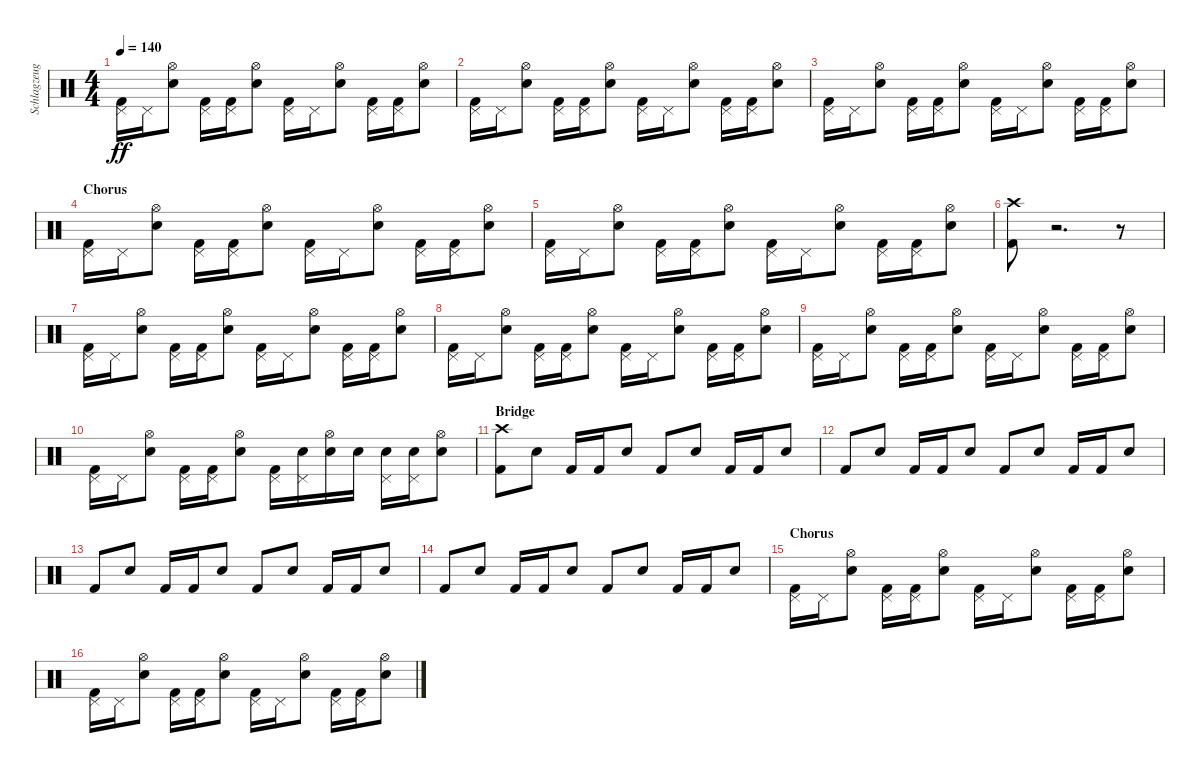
\track ("Schlagzeug - Bela B." "Schlagzeug") {instrument percussion}
\staff {score}
\articulation defaults
\ts (4 4)
\tempo 140
\clef neutral
\ks c
("Kick (hit) 2" "Pedal Hi-Hat (hit)").16{dy ff} "Pedal Hi-Hat (hit)".16 ("Electric Snare (hit)" "Hi-Hat (open)").8 ("Kick (hit) 2" "Pedal Hi-Hat (hit)").16 ("Kick (hit) 2" "Pedal Hi-Hat (hit)").16 ("Electric Snare (hit)" "Hi-Hat (open)").8 ("Kick (hit) 2" "Pedal Hi-Hat (hit)").16 "Pedal Hi-Hat (hit)".16 ("Electric Snare (hit)" "Hi-Hat (open)").8 ("Kick (hit) 2" "Pedal Hi-Hat (hit)").16 ("Kick (hit) 2" "Pedal Hi-Hat (hit)").16 ("Electric Snare (hit)" "Hi-Hat (open)").8 |
("Kick (hit) 2" "Pedal Hi-Hat (hit)").16 "Pedal Hi-Hat (hit)".16 ("Electric Snare (hit)" "Hi-Hat (open)").8 ("Kick (hit) 2" "Pedal Hi-Hat (hit)").16 ("Kick (hit) 2" "Pedal Hi-Hat (hit)").16 ("Electric Snare (hit)" "Hi-Hat (open)").8 ("Kick (hit) 2" "Pedal Hi-Hat (hit)").16 "Pedal Hi-Hat (hit)".16 ("Electric Snare (hit)" "Hi-Hat (open)").8 ("Kick (hit) 2" "Pedal Hi-Hat (hit)").16 ("Kick (hit) 2" "Pedal Hi-Hat (hit)").16 ("Electric Snare (hit)" "Hi-Hat (open)").8 |
("Kick (hit) 2" "Pedal Hi-Hat (hit)").16 "Pedal Hi-Hat (hit)".16 ("Electric Snare (hit)" "Hi-Hat (open)").8 ("Kick (hit) 2" "Pedal Hi-Hat (hit)").16 ("Kick (hit) 2" "Pedal Hi-Hat (hit)").16 ("Electric Snare (hit)" "Hi-Hat (open)").8 ("Kick (hit) 2" "Pedal Hi-Hat (hit)").16 "Pedal Hi-Hat (hit)".16 ("Electric Snare (hit)" "Hi-Hat (open)").8 ("Kick (hit) 2" "Pedal Hi-Hat (hit)").16 ("Kick (hit) 2" "Pedal Hi-Hat (hit)").16 ("Electric Snare (hit)" "Hi-Hat (open)").8 |
\section ("" "Chorus")
("Kick (hit) 2" "Pedal Hi-Hat (hit)").16 "Pedal Hi-Hat (hit)".16 ("Electric Snare (hit)" "Hi-Hat (open)").8 ("Kick (hit) 2" "Pedal Hi-Hat (hit)").16 ("Kick (hit) 2" "Pedal Hi-Hat (hit)").16 ("Electric Snare (hit)" "Hi-Hat (open)").8 ("Kick (hit) 2" "Pedal Hi-Hat (hit)").16 "Pedal Hi-Hat (hit)".16 ("Electric Snare (hit)" "Hi-Hat (open)").8 ("Kick (hit) 2" "Pedal Hi-Hat (hit)").16 ("Kick (hit) 2" "Pedal Hi-Hat (hit)").16 ("Electric Snare (hit)" "Hi-Hat (open)").8 |
("Kick (hit) 2" "Pedal Hi-Hat (hit)").16 "Pedal Hi-Hat (hit)".16 ("Electric Snare (hit)" "Hi-Hat (open)").8 ("Kick (hit) 2" "Pedal Hi-Hat (hit)").16 ("Kick (hit) 2" "Pedal Hi-Hat (hit)").16 ("Electric Snare (hit)" "Hi-Hat (open)").8 ("Kick (hit) 2" "Pedal Hi-Hat (hit)").16 "Pedal Hi-Hat (hit)".16 ("Electric Snare (hit)" "Hi-Hat (open)").8 ("Kick (hit) 2" "Pedal Hi-Hat (hit)").16 ("Kick (hit) 2" "Pedal Hi-Hat (hit)").16 ("Electric Snare (hit)" "Hi-Hat (open)").8 |
("Crash high (hit)" "Kick (hit) 2").8 r.2{d} r.8 |
("Kick (hit) 2" "Pedal Hi-Hat (hit)").16 "Pedal Hi-Hat (hit)".16 ("Electric Snare (hit)" "Hi-Hat (open)").8 ("Kick (hit) 2" "Pedal Hi-Hat (hit)").16 ("Kick (hit) 2" "Pedal Hi-Hat (hit)").16 ("Electric Snare (hit)" "Hi-Hat (open)").8 ("Kick (hit) 2" "Pedal Hi-Hat (hit)").16 "Pedal Hi-Hat (hit)".16 ("Electric Snare (hit)" "Hi-Hat (open)").8 ("Kick (hit) 2" "Pedal Hi-Hat (hit)").16 ("Kick (hit) 2" "Pedal Hi-Hat (hit)").16 ("Electric Snare (hit)" "Hi-Hat (open)").8 |
("Kick (hit) 2" "Pedal Hi-Hat (hit)").16 "Pedal Hi-Hat (hit)".16 ("Electric Snare (hit)" "Hi-Hat (open)").8 ("Kick (hit) 2" "Pedal Hi-Hat (hit)").16 ("Kick (hit) 2" "Pedal Hi-Hat (hit)").16 ("Electric Snare (hit)" "Hi-Hat (open)").8 ("Kick (hit) 2" "Pedal Hi-Hat (hit)").16 "Pedal Hi-Hat (hit)".16 ("Electric Snare (hit)" "Hi-Hat (open)").8 ("Kick (hit) 2" "Pedal Hi-Hat (hit)").16 ("Kick (hit) 2" "Pedal Hi-Hat (hit)").16 ("Electric Snare (hit)" "Hi-Hat (open)").8 |
("Kick (hit) 2" "Pedal Hi-Hat (hit)").16 "Pedal Hi-Hat (hit)".16 ("Electric Snare (hit)" "Hi-Hat (open)").8 ("Kick (hit) 2" "Pedal Hi-Hat (hit)").16 ("Kick (hit) 2" "Pedal Hi-Hat (hit)").16 ("Electric Snare (hit)" "Hi-Hat (open)").8 ("Kick (hit) 2" "Pedal Hi-Hat (hit)").16 "Pedal Hi-Hat (hit)".16 ("Electric Snare (hit)" "Hi-Hat (open)").8 ("Kick (hit) 2" "Pedal Hi-Hat (hit)").16 ("Kick (hit) 2" "Pedal Hi-Hat (hit)").16 ("Electric Snare (hit)" "Hi-Hat (open)").8 |
("Kick (hit) 2" "Pedal Hi-Hat (hit)").16 "Pedal Hi-Hat (hit)".16 ("Electric Snare (hit)" "Hi-Hat (open)").8 ("Kick (hit) 2" "Pedal Hi-Hat (hit)").16 ("Kick (hit) 2" "Pedal Hi-Hat (hit)").16 ("Electric Snare (hit)" "Hi-Hat (open)").8 ("Pedal Hi-Hat (hit)" "Kick (hit) 2").16 ("Pedal Hi-Hat (hit)" "Electric Snare (hit)").16 ("Electric Snare (hit)" "Hi-Hat (open)").16 "Electric Snare (hit)".16 ("Pedal Hi-Hat (hit)" "Electric Snare (hit)").16 ("Pedal Hi-Hat (hit)" "Electric Snare (hit)").16 ("Electric Snare (hit)" "Hi-Hat (open)").8 |
\section ("" "Bridge")
("Kick (hit) 2" "Crash high (hit)").8 "Electric Snare (hit)".8 "Kick (hit) 2".16 "Kick (hit) 2".16 "Electric Snare (hit)".8 "Kick (hit) 2".8 "Electric Snare (hit)".8 "Kick (hit) 2".16 "Kick (hit) 2".16 "Electric Snare (hit)".8 |
"Kick (hit) 2".8 "Electric Snare (hit)".8 "Kick (hit) 2".16 "Kick (hit) 2".16 "Electric Snare (hit)".8 "Kick (hit) 2".8 "Electric Snare (hit)".8 "Kick (hit) 2".16 "Kick (hit) 2".16 "Electric Snare (hit)".8 |
"Kick (hit) 2".8 "Electric Snare (hit)".8 "Kick (hit) 2".16 "Kick (hit) 2".16 "Electric Snare (hit)".8 "Kick (hit) 2".8 "Electric Snare (hit)".8 "Kick (hit) 2".16 "Kick (hit) 2".16 "Electric Snare (hit)".8 |
"Kick (hit) 2".8 "Electric Snare (hit)".8 "Kick (hit) 2".16 "Kick (hit) 2".16 "Electric Snare (hit)".8 "Kick (hit) 2".8 "Electric Snare (hit)".8 "Kick (hit) 2".16 "Kick (hit) 2".16 "Electric Snare (hit)".8 |
\section ("" "Chorus")
("Kick (hit) 2" "Pedal Hi-Hat (hit)").16 "Pedal Hi-Hat (hit)".16 ("Hi-Hat (open)" "Electric Snare (hit)").8 ("Kick (hit) 2" "Pedal Hi-Hat (hit)").16 ("Pedal Hi-Hat (hit)" "Kick (hit) 2").16 ("Hi-Hat (open)" "Electric Snare (hit)").8 ("Pedal Hi-Hat (hit)" "Kick (hit) 2").16 "Pedal Hi-Hat (hit)".16 ("Electric Snare (hit)" "Hi-Hat (open)").8 ("Pedal Hi-Hat (hit)" "Kick (hit) 2").16 ("Kick (hit) 2" "Pedal Hi-Hat (hit)").16 ("Electric Snare (hit)" "Hi-Hat (open)").8 |
("Kick (hit) 2" "Pedal Hi-Hat (hit)").16 "Pedal Hi-Hat (hit)".16 ("Electric Snare (hit)" "Hi-Hat (open)").8 ("Kick (hit) 2" "Pedal Hi-Hat (hit)").16 ("Kick (hit) 2" "Pedal Hi-Hat (hit)").16 ("Electric Snare (hit)" "Hi-Hat (open)").8 ("Kick (hit) 2" "Pedal Hi-Hat (hit)").16 "Pedal Hi-Hat (hit)".16 ("Electric Snare (hit)" "Hi-Hat (open)").8 ("Kick (hit) 2" "Pedal Hi-Hat (hit)").16 ("Kick (hit) 2" "Pedal Hi-Hat (hit)").16 ("Electric Snare (hit)" "Hi-Hat (open)").8
